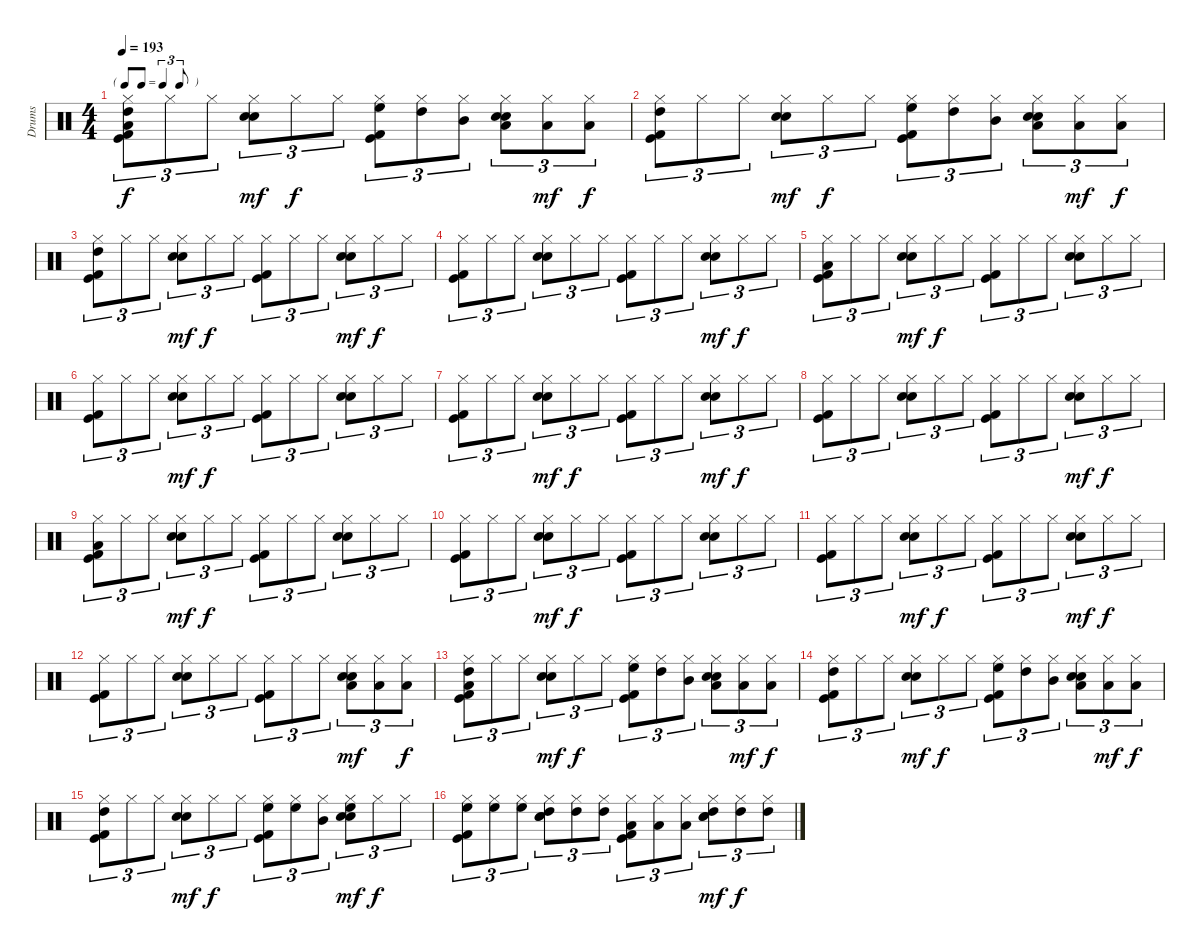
\track ("Drums" "Drums") {instrument percussion}
\staff {score}
\articulation defaults
\ts (4 4)
\tf triplet8th
\tempo 193
\clef neutral
\ks c
("High Tom (hit)" "Hi-Hat (closed)" "Kick (hit) 2" "Kick (hit)" "Low Floor Tom (hit)").8{tu (3 2) dy f} "Hi-Hat (closed)".8{tu (3 2)} "Hi-Hat (closed)".8{tu (3 2)} ("Hi-Hat (closed)" "Electric Snare (hit)" "Snare (hit) 2").8{tu (3 2) dy mf} "Hi-Hat (closed)".8{tu (3 2) dy f} "Hi-Hat (closed)".8{tu (3 2)} ("High Floor Tom (hit)" "Hi-Hat (closed)" "Kick (hit) 2" "Kick (hit)").8{tu (3 2)} ("High Tom (hit)" "Hi-Hat (closed)").8{tu (3 2)} ("Mid Tom (hit)" "Hi-Hat (closed)").8{tu (3 2)} ("Low Tom (hit)" "Hi-Hat (closed)" "Snare (hit) 2" "Electric Snare (hit)").8{tu (3 2)} ("Low Tom (hit)" "Hi-Hat (closed)").8{tu (3 2) dy mf} ("Low Tom (hit)" "Hi-Hat (closed)").8{tu (3 2) dy f} |
("High Tom (hit)" "Kick (hit)" "Kick (hit) 2" "Hi-Hat (closed)").8{tu (3 2)} "Hi-Hat (closed)".8{tu (3 2)} "Hi-Hat (closed)".8{tu (3 2)} ("Snare (hit) 2" "Electric Snare (hit)" "Hi-Hat (closed)").8{tu (3 2) dy mf} "Hi-Hat (closed)".8{tu (3 2) dy f} "Hi-Hat (closed)".8{tu (3 2)} ("High Floor Tom (hit)" "Kick (hit)" "Kick (hit) 2" "Hi-Hat (closed)").8{tu (3 2)} ("High Tom (hit)" "Hi-Hat (closed)").8{tu (3 2)} ("Mid Tom (hit)" "Hi-Hat (closed)").8{tu (3 2)} ("Low Tom (hit)" "Snare (hit) 2" "Electric Snare (hit)" "Hi-Hat (closed)").8{tu (3 2)} ("Low Tom (hit)" "Hi-Hat (closed)").8{tu (3 2) dy mf} ("Low Tom (hit)" "Hi-Hat (closed)").8{tu (3 2) dy f} |
("High Tom (hit)" "Kick (hit) 2" "Kick (hit)" "Hi-Hat (closed)").8{tu (3 2)} "Hi-Hat (closed)".8{tu (3 2)} "Hi-Hat (closed)".8{tu (3 2)} ("Snare (hit) 2" "Electric Snare (hit)" "Hi-Hat (closed)").8{tu (3 2) dy mf} "Hi-Hat (closed)".8{tu (3 2) dy f} "Hi-Hat (closed)".8{tu (3 2)} ("Kick (hit)" "Kick (hit) 2" "Hi-Hat (closed)").8{tu (3 2)} "Hi-Hat (closed)".8{tu (3 2)} "Hi-Hat (closed)".8{tu (3 2)} ("Hi-Hat (closed)" "Electric Snare (hit)" "Snare (hit) 2").8{tu (3 2) dy mf} "Hi-Hat (closed)".8{tu (3 2) dy f} "Hi-Hat (closed)".8{tu (3 2)} |
("Hi-Hat (closed)" "Kick (hit) 2" "Kick (hit)").8{tu (3 2)} "Hi-Hat (closed)".8{tu (3 2)} "Hi-Hat (closed)".8{tu (3 2)} ("Hi-Hat (closed)" "Snare (hit) 2" "Electric Snare (hit)").8{tu (3 2)} "Hi-Hat (closed)".8{tu (3 2)} "Hi-Hat (closed)".8{tu (3 2)} ("Kick (hit)" "Kick (hit) 2" "Hi-Hat (closed)").8{tu (3 2)} "Hi-Hat (closed)".8{tu (3 2)} "Hi-Hat (closed)".8{tu (3 2)} ("Hi-Hat (closed)" "Snare (hit) 2" "Electric Snare (hit)").8{tu (3 2) dy mf} "Hi-Hat (closed)".8{tu (3 2) dy f} "Hi-Hat (closed)".8{tu (3 2)} |
("Hi-Hat (closed)" "Low Floor Tom (hit)" "Kick (hit) 2" "Kick (hit)").8{tu (3 2)} "Hi-Hat (closed)".8{tu (3 2)} "Hi-Hat (closed)".8{tu (3 2)} ("Hi-Hat (closed)" "Electric Snare (hit)" "Snare (hit) 2").8{tu (3 2) dy mf} "Hi-Hat (closed)".8{tu (3 2) dy f} "Hi-Hat (closed)".8{tu (3 2)} ("Hi-Hat (closed)" "Kick (hit) 2" "Kick (hit)").8{tu (3 2)} "Hi-Hat (closed)".8{tu (3 2)} "Hi-Hat (closed)".8{tu (3 2)} ("Hi-Hat (closed)" "Snare (hit) 2" "Electric Snare (hit)").8{tu (3 2)} "Hi-Hat (closed)".8{tu (3 2)} "Hi-Hat (closed)".8{tu (3 2)} |
("Hi-Hat (closed)" "Kick (hit)" "Kick (hit) 2").8{tu (3 2)} "Hi-Hat (closed)".8{tu (3 2)} "Hi-Hat (closed)".8{tu (3 2)} ("Snare (hit) 2" "Electric Snare (hit)" "Hi-Hat (closed)").8{tu (3 2) dy mf} "Hi-Hat (closed)".8{tu (3 2) dy f} "Hi-Hat (closed)".8{tu (3 2)} ("Hi-Hat (closed)" "Kick (hit)" "Kick (hit) 2").8{tu (3 2)} "Hi-Hat (closed)".8{tu (3 2)} "Hi-Hat (closed)".8{tu (3 2)} ("Snare (hit) 2" "Electric Snare (hit)" "Hi-Hat (closed)").8{tu (3 2)} "Hi-Hat (closed)".8{tu (3 2)} "Hi-Hat (closed)".8{tu (3 2)} |
("Hi-Hat (closed)" "Kick (hit) 2" "Kick (hit)").8{tu (3 2)} "Hi-Hat (closed)".8{tu (3 2)} "Hi-Hat (closed)".8{tu (3 2)} ("Snare (hit) 2" "Electric Snare (hit)" "Hi-Hat (closed)").8{tu (3 2) dy mf} "Hi-Hat (closed)".8{tu (3 2) dy f} "Hi-Hat (closed)".8{tu (3 2)} ("Hi-Hat (closed)" "Kick (hit)" "Kick (hit) 2").8{tu (3 2)} "Hi-Hat (closed)".8{tu (3 2)} "Hi-Hat (closed)".8{tu (3 2)} ("Hi-Hat (closed)" "Electric Snare (hit)" "Snare (hit) 2").8{tu (3 2) dy mf} "Hi-Hat (closed)".8{tu (3 2) dy f} "Hi-Hat (closed)".8{tu (3 2)} |
("Hi-Hat (closed)" "Kick (hit) 2" "Kick (hit)").8{tu (3 2)} "Hi-Hat (closed)".8{tu (3 2)} "Hi-Hat (closed)".8{tu (3 2)} ("Hi-Hat (closed)" "Snare (hit) 2" "Electric Snare (hit)").8{tu (3 2)} "Hi-Hat (closed)".8{tu (3 2)} "Hi-Hat (closed)".8{tu (3 2)} ("Hi-Hat (closed)" "Kick (hit)" "Kick (hit) 2").8{tu (3 2)} "Hi-Hat (closed)".8{tu (3 2)} "Hi-Hat (closed)".8{tu (3 2)} ("Hi-Hat (closed)" "Snare (hit) 2" "Electric Snare (hit)").8{tu (3 2) dy mf} "Hi-Hat (closed)".8{tu (3 2) dy f} "Hi-Hat (closed)".8{tu (3 2)} |
("Hi-Hat (closed)" "Low Floor Tom (hit)" "Kick (hit) 2" "Kick (hit)").8{tu (3 2)} "Hi-Hat (closed)".8{tu (3 2)} "Hi-Hat (closed)".8{tu (3 2)} ("Hi-Hat (closed)" "Electric Snare (hit)" "Snare (hit) 2").8{tu (3 2) dy mf} "Hi-Hat (closed)".8{tu (3 2) dy f} "Hi-Hat (closed)".8{tu (3 2)} ("Hi-Hat (closed)" "Kick (hit) 2" "Kick (hit)").8{tu (3 2)} "Hi-Hat (closed)".8{tu (3 2)} "Hi-Hat (closed)".8{tu (3 2)} ("Hi-Hat (closed)" "Snare (hit) 2" "Electric Snare (hit)").8{tu (3 2)} "Hi-Hat (closed)".8{tu (3 2)} "Hi-Hat (closed)".8{tu (3 2)} |
("Hi-Hat (closed)" "Kick (hit)" "Kick (hit) 2").8{tu (3 2)} "Hi-Hat (closed)".8{tu (3 2)} "Hi-Hat (closed)".8{tu (3 2)} ("Snare (hit) 2" "Electric Snare (hit)" "Hi-Hat (closed)").8{tu (3 2) dy mf} "Hi-Hat (closed)".8{tu (3 2) dy f} "Hi-Hat (closed)".8{tu (3 2)} ("Hi-Hat (closed)" "Kick (hit)" "Kick (hit) 2").8{tu (3 2)} "Hi-Hat (closed)".8{tu (3 2)} "Hi-Hat (closed)".8{tu (3 2)} ("Snare (hit) 2" "Electric Snare (hit)" "Hi-Hat (closed)").8{tu (3 2)} "Hi-Hat (closed)".8{tu (3 2)} "Hi-Hat (closed)".8{tu (3 2)} |
("Hi-Hat (closed)" "Kick (hit) 2" "Kick (hit)").8{tu (3 2)} "Hi-Hat (closed)".8{tu (3 2)} "Hi-Hat (closed)".8{tu (3 2)} ("Snare (hit) 2" "Electric Snare (hit)" "Hi-Hat (closed)").8{tu (3 2) dy mf} "Hi-Hat (closed)".8{tu (3 2) dy f} "Hi-Hat (closed)".8{tu (3 2)} ("Hi-Hat (closed)" "Kick (hit)" "Kick (hit) 2").8{tu (3 2)} "Hi-Hat (closed)".8{tu (3 2)} "Hi-Hat (closed)".8{tu (3 2)} ("Hi-Hat (closed)" "Electric Snare (hit)" "Snare (hit) 2").8{tu (3 2) dy mf} "Hi-Hat (closed)".8{tu (3 2) dy f} "Hi-Hat (closed)".8{tu (3 2)} |
("Hi-Hat (closed)" "Kick (hit) 2" "Kick (hit)").8{tu (3 2)} "Hi-Hat (closed)".8{tu (3 2)} "Hi-Hat (closed)".8{tu (3 2)} ("Hi-Hat (closed)" "Snare (hit) 2" "Electric Snare (hit)").8{tu (3 2)} "Hi-Hat (closed)".8{tu (3 2)} "Hi-Hat (closed)".8{tu (3 2)} ("Hi-Hat (closed)" "Kick (hit)" "Kick (hit) 2").8{tu (3 2)} "Hi-Hat (closed)".8{tu (3 2)} "Hi-Hat (closed)".8{tu (3 2)} ("Low Tom (hit)" "Hi-Hat (closed)" "Snare (hit) 2" "Electric Snare (hit)").8{tu (3 2) dy mf} ("Low Tom (hit)" "Hi-Hat (closed)").8{tu (3 2)} ("Low Tom (hit)" "Hi-Hat (closed)").8{tu (3 2) dy f} |
("High Tom (hit)" "Hi-Hat (closed)" "Low Floor Tom (hit)" "Kick (hit) 2" "Kick (hit)").8{tu (3 2)} "Hi-Hat (closed)".8{tu (3 2)} "Hi-Hat (closed)".8{tu (3 2)} ("Hi-Hat (closed)" "Electric Snare (hit)" "Snare (hit) 2").8{tu (3 2) dy mf} "Hi-Hat (closed)".8{tu (3 2) dy f} "Hi-Hat (closed)".8{tu (3 2)} ("High Floor Tom (hit)" "Hi-Hat (closed)" "Kick (hit) 2" "Kick (hit)").8{tu (3 2)} ("High Tom (hit)" "Hi-Hat (closed)").8{tu (3 2)} ("Mid Tom (hit)" "Hi-Hat (closed)").8{tu (3 2)} ("Low Tom (hit)" "Hi-Hat (closed)" "Snare (hit) 2" "Electric Snare (hit)").8{tu (3 2)} ("Low Tom (hit)" "Hi-Hat (closed)").8{tu (3 2) dy mf} ("Low Tom (hit)" "Hi-Hat (closed)").8{tu (3 2) dy f} |
("High Tom (hit)" "Hi-Hat (closed)" "Kick (hit)" "Kick (hit) 2").8{tu (3 2)} "Hi-Hat (closed)".8{tu (3 2)} "Hi-Hat (closed)".8{tu (3 2)} ("Snare (hit) 2" "Electric Snare (hit)" "Hi-Hat (closed)").8{tu (3 2) dy mf} "Hi-Hat (closed)".8{tu (3 2) dy f} "Hi-Hat (closed)".8{tu (3 2)} ("High Floor Tom (hit)" "Hi-Hat (closed)" "Kick (hit)" "Kick (hit) 2").8{tu (3 2)} ("High Tom (hit)" "Hi-Hat (closed)").8{tu (3 2)} ("Mid Tom (hit)" "Hi-Hat (closed)").8{tu (3 2)} ("Low Tom (hit)" "Snare (hit) 2" "Electric Snare (hit)" "Hi-Hat (closed)").8{tu (3 2)} ("Low Tom (hit)" "Hi-Hat (closed)").8{tu (3 2) dy mf} ("Low Tom (hit)" "Hi-Hat (closed)").8{tu (3 2) dy f} |
("High Tom (hit)" "Hi-Hat (closed)" "Kick (hit) 2" "Kick (hit)").8{tu (3 2)} "Hi-Hat (closed)".8{tu (3 2)} "Hi-Hat (closed)".8{tu (3 2)} ("Snare (hit) 2" "Electric Snare (hit)" "Hi-Hat (closed)").8{tu (3 2) dy mf} "Hi-Hat (closed)".8{tu (3 2) dy f} "Hi-Hat (closed)".8{tu (3 2)} ("High Floor Tom (hit)" "Hi-Hat (closed)" "Kick (hit)" "Kick (hit) 2").8{tu (3 2)} ("High Floor Tom (hit)" "Hi-Hat (closed)").8{tu (3 2)} ("Mid Tom (hit)" "Hi-Hat (closed)").8{tu (3 2)} ("High Floor Tom (hit)" "Hi-Hat (closed)" "Electric Snare (hit)" "Snare (hit) 2").8{tu (3 2) dy mf} "Hi-Hat (closed)".8{tu (3 2) dy f} "Hi-Hat (closed)".8{tu (3 2)} |
("High Floor Tom (hit)" "Hi-Hat (closed)" "Kick (hit) 2" "Kick (hit)").8{tu (3 2)} ("High Floor Tom (hit)" "Hi-Hat (closed)").8{tu (3 2)} ("High Floor Tom (hit)" "Hi-Hat (closed)").8{tu (3 2)} ("High Tom (hit)" "Hi-Hat (closed)" "Snare (hit) 2" "Electric Snare (hit)").8{tu (3 2)} ("High Tom (hit)" "Hi-Hat (closed)").8{tu (3 2)} ("High Tom (hit)" "Hi-Hat (closed)").8{tu (3 2)} ("Low Tom (hit)" "Hi-Hat (closed)" "Kick (hit)" "Kick (hit) 2").8{tu (3 2)} ("Low Tom (hit)" "Hi-Hat (closed)").8{tu (3 2)} ("Low Tom (hit)" "Hi-Hat (closed)").8{tu (3 2)} ("High Tom (hit)" "Hi-Hat (closed)" "Snare (hit) 2" "Electric Snare (hit)").8{tu (3 2) dy mf} ("High Tom (hit)" "Hi-Hat (closed)").8{tu (3 2) dy f} ("High Tom (hit)" "Hi-Hat (closed)").8{tu (3 2)}
